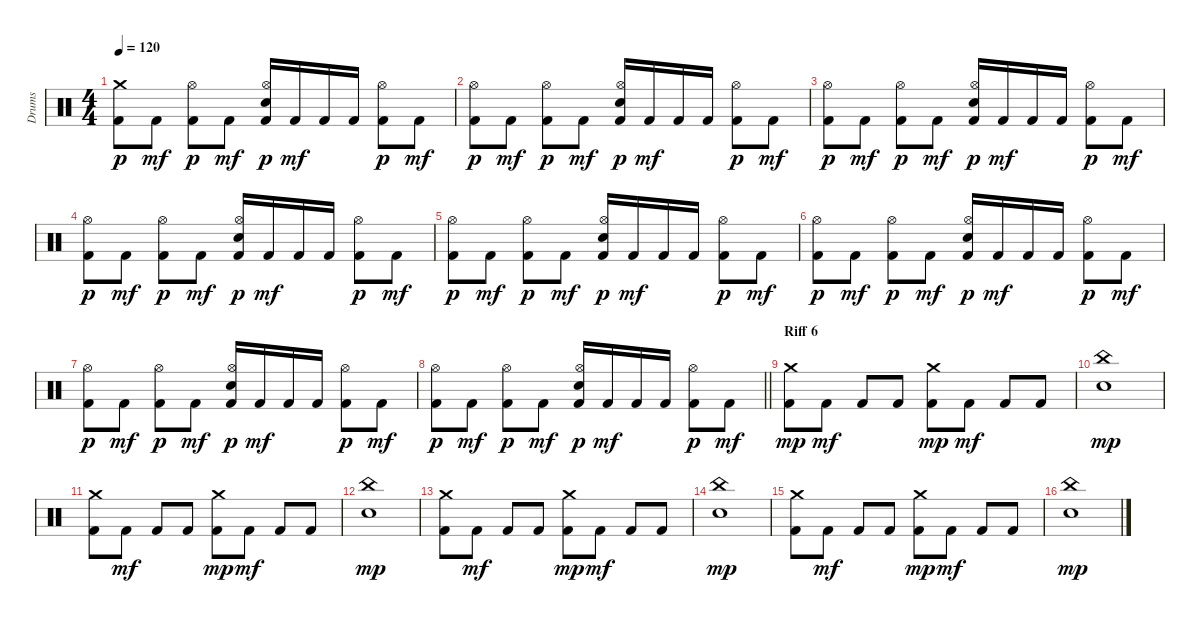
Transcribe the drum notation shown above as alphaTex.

\track ("Drums" "Drums") {instrument percussion}
\staff {score}
\articulation defaults
\ts (4 4)
\tempo 120
\clef neutral
\ks c
("Kick (hit) 2" "Crash medium (hit)").8{dy p} "Kick (hit) 2".8{dy mf} ("Kick (hit) 2" "Hi-Hat (open)").8{dy p} "Kick (hit) 2".8{dy mf} ("Kick (hit) 2" "Hi-Hat (open)" "Snare (hit) 2").16{dy p} "Kick (hit) 2".16{dy mf} "Kick (hit) 2".16 "Kick (hit) 2".16 ("Kick (hit) 2" "Hi-Hat (open)").8{dy p} "Kick (hit) 2".8{dy mf} |
("Kick (hit) 2" "Hi-Hat (open)").8{dy p} "Kick (hit) 2".8{dy mf} ("Kick (hit) 2" "Hi-Hat (open)").8{dy p} "Kick (hit) 2".8{dy mf} ("Kick (hit) 2" "Hi-Hat (open)" "Snare (hit) 2").16{dy p} "Kick (hit) 2".16{dy mf} "Kick (hit) 2".16 "Kick (hit) 2".16 ("Kick (hit) 2" "Hi-Hat (open)").8{dy p} "Kick (hit) 2".8{dy mf} |
("Kick (hit) 2" "Hi-Hat (open)").8{dy p} "Kick (hit) 2".8{dy mf} ("Kick (hit) 2" "Hi-Hat (open)").8{dy p} "Kick (hit) 2".8{dy mf} ("Kick (hit) 2" "Hi-Hat (open)" "Snare (hit) 2").16{dy p} "Kick (hit) 2".16{dy mf} "Kick (hit) 2".16 "Kick (hit) 2".16 ("Kick (hit) 2" "Hi-Hat (open)").8{dy p} "Kick (hit) 2".8{dy mf} |
("Kick (hit) 2" "Hi-Hat (open)").8{dy p} "Kick (hit) 2".8{dy mf} ("Kick (hit) 2" "Hi-Hat (open)").8{dy p} "Kick (hit) 2".8{dy mf} ("Kick (hit) 2" "Hi-Hat (open)" "Snare (hit) 2").16{dy p} "Kick (hit) 2".16{dy mf} "Kick (hit) 2".16 "Kick (hit) 2".16 ("Kick (hit) 2" "Hi-Hat (open)").8{dy p} "Kick (hit) 2".8{dy mf} |
("Kick (hit) 2" "Hi-Hat (open)").8{dy p} "Kick (hit) 2".8{dy mf} ("Kick (hit) 2" "Hi-Hat (open)").8{dy p} "Kick (hit) 2".8{dy mf} ("Kick (hit) 2" "Hi-Hat (open)" "Snare (hit) 2").16{dy p} "Kick (hit) 2".16{dy mf} "Kick (hit) 2".16 "Kick (hit) 2".16 ("Kick (hit) 2" "Hi-Hat (open)").8{dy p} "Kick (hit) 2".8{dy mf} |
("Kick (hit) 2" "Hi-Hat (open)").8{dy p} "Kick (hit) 2".8{dy mf} ("Kick (hit) 2" "Hi-Hat (open)").8{dy p} "Kick (hit) 2".8{dy mf} ("Kick (hit) 2" "Hi-Hat (open)" "Snare (hit) 2").16{dy p} "Kick (hit) 2".16{dy mf} "Kick (hit) 2".16 "Kick (hit) 2".16 ("Kick (hit) 2" "Hi-Hat (open)").8{dy p} "Kick (hit) 2".8{dy mf} |
("Kick (hit) 2" "Hi-Hat (open)").8{dy p} "Kick (hit) 2".8{dy mf} ("Kick (hit) 2" "Hi-Hat (open)").8{dy p} "Kick (hit) 2".8{dy mf} ("Kick (hit) 2" "Hi-Hat (open)" "Snare (hit) 2").16{dy p} "Kick (hit) 2".16{dy mf} "Kick (hit) 2".16 "Kick (hit) 2".16 ("Kick (hit) 2" "Hi-Hat (open)").8{dy p} "Kick (hit) 2".8{dy mf} |
\barLineRight lightlight
("Kick (hit) 2" "Hi-Hat (open)").8{dy p} "Kick (hit) 2".8{dy mf} ("Kick (hit) 2" "Hi-Hat (open)").8{dy p} "Kick (hit) 2".8{dy mf} ("Kick (hit) 2" "Hi-Hat (open)" "Snare (hit) 2").16{dy p} "Kick (hit) 2".16{dy mf} "Kick (hit) 2".16 "Kick (hit) 2".16 ("Kick (hit) 2" "Hi-Hat (open)").8{dy p} "Kick (hit) 2".8{dy mf} |
\section ("" "Riff 6")
("Kick (hit) 2" "Crash medium (hit)").8{dy mp} "Kick (hit) 2".8{dy mf} "Kick (hit) 2".8 "Kick (hit) 2".8 ("Kick (hit) 2" "Crash medium (hit)").8{dy mp} "Kick (hit) 2".8{dy mf} "Kick (hit) 2".8 "Kick (hit) 2".8 |
("China (hit)" "Snare (hit) 2").1{dy mp} |
("Kick (hit) 2" "Crash medium (hit)").8 "Kick (hit) 2".8{dy mf} "Kick (hit) 2".8 "Kick (hit) 2".8 ("Kick (hit) 2" "Crash medium (hit)").8{dy mp} "Kick (hit) 2".8{dy mf} "Kick (hit) 2".8 "Kick (hit) 2".8 |
("China (hit)" "Snare (hit) 2").1{dy mp} |
("Kick (hit) 2" "Crash medium (hit)").8 "Kick (hit) 2".8{dy mf} "Kick (hit) 2".8 "Kick (hit) 2".8 ("Kick (hit) 2" "Crash medium (hit)").8{dy mp} "Kick (hit) 2".8{dy mf} "Kick (hit) 2".8 "Kick (hit) 2".8 |
("China (hit)" "Snare (hit) 2").1{dy mp} |
("Kick (hit) 2" "Crash medium (hit)").8 "Kick (hit) 2".8{dy mf} "Kick (hit) 2".8 "Kick (hit) 2".8 ("Kick (hit) 2" "Crash medium (hit)").8{dy mp} "Kick (hit) 2".8{dy mf} "Kick (hit) 2".8 "Kick (hit) 2".8 |
("China (hit)" "Snare (hit) 2").1{dy mp}
